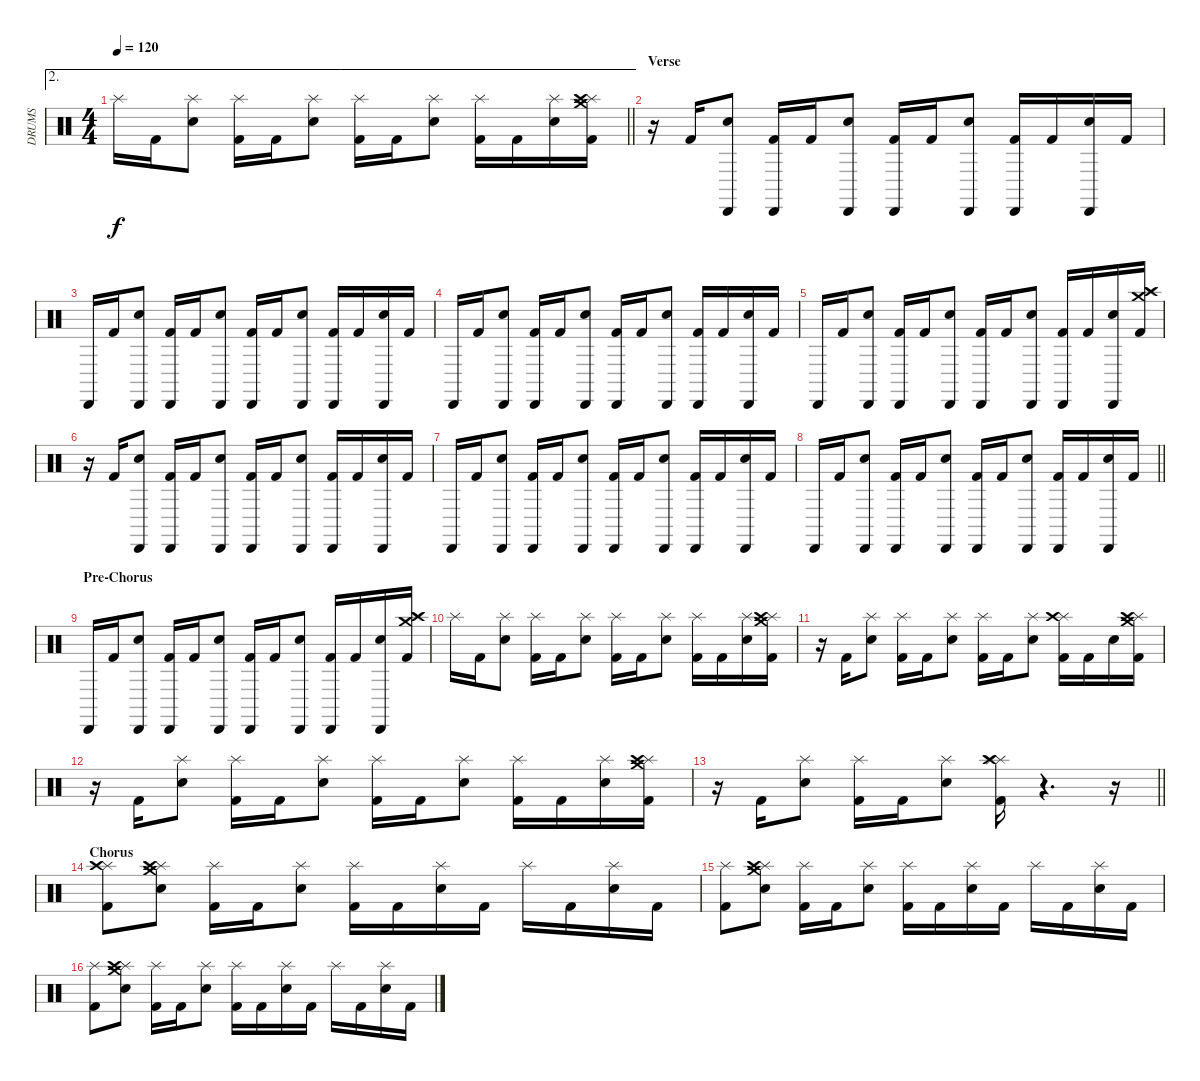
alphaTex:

\track ("DRUMS" "DRUMS") {instrument percussion}
\staff {score}
\articulation defaults
\ae 2
\ts (4 4)
\tempo 120
\clef neutral
\barLineRight lightlight
\ks c "Splash (hit)".16{dy f} "Kick (hit) 2".16
("Splash (hit)" "Electric Snare (hit)").8 ("Splash (hit)" "Kick (hit) 2").16 "Kick (hit) 2".16 ("Splash (hit)" "Electric Snare (hit)").8 ("Splash (hit)" "Kick (hit) 2").16 "Kick (hit) 2".16 ("Splash (hit)" "Electric Snare (hit)").8 ("Splash (hit)" "Kick (hit) 2").16 "Kick (hit) 2".16 ("Splash (hit)" "Electric Snare (hit)").16 ("Crash medium (hit)" "Splash (hit)" "Crash high (hit)" "Kick (hit) 2").16 |
\section ("" "Verse")
r.16 "Kick (hit) 2".16 ("Cabasa (hit)" "Electric Snare (hit)").8 ("Cabasa (hit)" "Kick (hit) 2").16 "Kick (hit) 2".16 ("Cabasa (hit)" "Electric Snare (hit)").8 ("Cabasa (hit)" "Kick (hit) 2").16 "Kick (hit) 2".16 ("Cabasa (hit)" "Electric Snare (hit)").8 ("Cabasa (hit)" "Kick (hit) 2").16 "Kick (hit) 2".16 ("Cabasa (hit)" "Electric Snare (hit)").16 "Kick (hit) 2".16 |
"Cabasa (hit)".16 "Kick (hit) 2".16 ("Cabasa (hit)" "Electric Snare (hit)").8 ("Cabasa (hit)" "Kick (hit) 2").16 "Kick (hit) 2".16 ("Cabasa (hit)" "Electric Snare (hit)").8 ("Cabasa (hit)" "Kick (hit) 2").16 "Kick (hit) 2".16 ("Cabasa (hit)" "Electric Snare (hit)").8 ("Cabasa (hit)" "Kick (hit) 2").16 "Kick (hit) 2".16 ("Cabasa (hit)" "Electric Snare (hit)").16 "Kick (hit) 2".16 |
"Cabasa (hit)".16 "Kick (hit) 2".16 ("Cabasa (hit)" "Electric Snare (hit)").8 ("Cabasa (hit)" "Kick (hit) 2").16 "Kick (hit) 2".16 ("Cabasa (hit)" "Electric Snare (hit)").8 ("Cabasa (hit)" "Kick (hit) 2").16 "Kick (hit) 2".16 ("Cabasa (hit)" "Electric Snare (hit)").8 ("Cabasa (hit)" "Kick (hit) 2").16 "Kick (hit) 2".16 ("Cabasa (hit)" "Electric Snare (hit)").16 "Kick (hit) 2".16 |
"Cabasa (hit)".16 "Kick (hit) 2".16 ("Cabasa (hit)" "Electric Snare (hit)").8 ("Cabasa (hit)" "Kick (hit) 2").16 "Kick (hit) 2".16 ("Cabasa (hit)" "Electric Snare (hit)").8 ("Cabasa (hit)" "Kick (hit) 2").16 "Kick (hit) 2".16 ("Cabasa (hit)" "Electric Snare (hit)").8 ("Cabasa (hit)" "Kick (hit) 2").16 "Kick (hit) 2".16 ("Cabasa (hit)" "Electric Snare (hit)").16 ("Crash medium (hit)" "Splash (hit)" "Crash high (hit)" "Kick (hit) 2").16 |
r.16 "Kick (hit) 2".16 ("Cabasa (hit)" "Electric Snare (hit)").8 ("Cabasa (hit)" "Kick (hit) 2").16 "Kick (hit) 2".16 ("Cabasa (hit)" "Electric Snare (hit)").8 ("Cabasa (hit)" "Kick (hit) 2").16 "Kick (hit) 2".16 ("Cabasa (hit)" "Electric Snare (hit)").8 ("Cabasa (hit)" "Kick (hit) 2").16 "Kick (hit) 2".16 ("Cabasa (hit)" "Electric Snare (hit)").16 "Kick (hit) 2".16 |
"Cabasa (hit)".16 "Kick (hit) 2".16 ("Cabasa (hit)" "Electric Snare (hit)").8 ("Cabasa (hit)" "Kick (hit) 2").16 "Kick (hit) 2".16 ("Cabasa (hit)" "Electric Snare (hit)").8 ("Cabasa (hit)" "Kick (hit) 2").16 "Kick (hit) 2".16 ("Cabasa (hit)" "Electric Snare (hit)").8 ("Cabasa (hit)" "Kick (hit) 2").16 "Kick (hit) 2".16 ("Cabasa (hit)" "Electric Snare (hit)").16 "Kick (hit) 2".16 |
\barLineRight lightlight "Cabasa (hit)".16 "Kick (hit) 2".16
("Cabasa (hit)" "Electric Snare (hit)").8 ("Cabasa (hit)" "Kick (hit) 2").16 "Kick (hit) 2".16 ("Cabasa (hit)" "Electric Snare (hit)").8 ("Cabasa (hit)" "Kick (hit) 2").16 "Kick (hit) 2".16 ("Cabasa (hit)" "Electric Snare (hit)").8 ("Cabasa (hit)" "Kick (hit) 2").16 "Kick (hit) 2".16 ("Cabasa (hit)" "Electric Snare (hit)").16 "Kick (hit) 2".16 |
\section ("" "Pre-Chorus")
"Cabasa (hit)".16 "Kick (hit) 2".16 ("Cabasa (hit)" "Electric Snare (hit)").8 ("Cabasa (hit)" "Kick (hit) 2").16 "Kick (hit) 2".16 ("Cabasa (hit)" "Electric Snare (hit)").8 ("Cabasa (hit)" "Kick (hit) 2").16 "Kick (hit) 2".16 ("Cabasa (hit)" "Electric Snare (hit)").8 ("Cabasa (hit)" "Kick (hit) 2").16 "Kick (hit) 2".16 ("Cabasa (hit)" "Electric Snare (hit)").16 ("Crash medium (hit)" "Splash (hit)" "Crash high (hit)" "Kick (hit) 2").16 |
"Splash (hit)".16 "Kick (hit) 2".16 ("Splash (hit)" "Electric Snare (hit)").8 ("Splash (hit)" "Kick (hit) 2").16 "Kick (hit) 2".16 ("Splash (hit)" "Electric Snare (hit)").8 ("Splash (hit)" "Kick (hit) 2").16 "Kick (hit) 2".16 ("Splash (hit)" "Electric Snare (hit)").8 ("Splash (hit)" "Kick (hit) 2").16 "Kick (hit) 2".16 ("Splash (hit)" "Electric Snare (hit)").16 ("Crash medium (hit)" "Splash (hit)" "Crash high (hit)" "Kick (hit) 2").16 |
r.16 "Kick (hit) 2".16 ("Splash (hit)" "Electric Snare (hit)").8 ("Splash (hit)" "Kick (hit) 2").16 "Kick (hit) 2".16 ("Splash (hit)" "Electric Snare (hit)").8 ("Splash (hit)" "Kick (hit) 2").16 "Kick (hit) 2".16 ("Splash (hit)" "Electric Snare (hit)").8 ("Splash (hit)" "Crash high (hit)" "Kick (hit) 2").16 "Kick (hit) 2".16 "Electric Snare (hit)".16 ("Crash medium (hit)" "Splash (hit)" "Crash high (hit)" "Kick (hit) 2").16 |
r.16 "Kick (hit) 2".16 ("Splash (hit)" "Electric Snare (hit)").8 ("Splash (hit)" "Kick (hit) 2").16 "Kick (hit) 2".16 ("Splash (hit)" "Electric Snare (hit)").8 ("Splash (hit)" "Kick (hit) 2").16 "Kick (hit) 2".16 ("Splash (hit)" "Electric Snare (hit)").8 ("Splash (hit)" "Kick (hit) 2").16 "Kick (hit) 2".16 ("Splash (hit)" "Electric Snare (hit)").16 ("Crash medium (hit)" "Splash (hit)" "Crash high (hit)" "Kick (hit) 2").16 |
\barLineRight lightlight
r.16 "Kick (hit) 2".16 ("Splash (hit)" "Electric Snare (hit)").8 ("Splash (hit)" "Kick (hit) 2").16 "Kick (hit) 2".16 ("Splash (hit)" "Electric Snare (hit)").8 ("Splash (hit)" "Splash (hit)" "Crash high (hit)" "Kick (hit) 2").16 r.4{d} r.16 |
\section ("" "Chorus")
("Splash (hit)" "Crash high (hit)" "Kick (hit) 2").8 ("Crash medium (hit)" "Splash (hit)" "Crash high (hit)" "Electric Snare (hit)").8 ("Splash (hit)" "Kick (hit) 2").16 "Kick (hit) 2".16 ("Splash (hit)" "Electric Snare (hit)").8 ("Splash (hit)" "Kick (hit) 2").16 "Kick (hit) 2".16 ("Splash (hit)" "Electric Snare (hit)").16 "Kick (hit) 2".16 "Splash (hit)".16 "Kick (hit) 2".16 ("Splash (hit)" "Electric Snare (hit)").16 "Kick (hit) 2".16 |
("Splash (hit)" "Kick (hit) 2").8 ("Crash medium (hit)" "Splash (hit)" "Crash high (hit)" "Electric Snare (hit)").8 ("Splash (hit)" "Kick (hit) 2").16 "Kick (hit) 2".16 ("Splash (hit)" "Electric Snare (hit)").8 ("Splash (hit)" "Kick (hit) 2").16 "Kick (hit) 2".16 ("Splash (hit)" "Electric Snare (hit)").16 "Kick (hit) 2".16 "Splash (hit)".16 "Kick (hit) 2".16 ("Splash (hit)" "Electric Snare (hit)").16 "Kick (hit) 2".16 |
("Splash (hit)" "Kick (hit) 2").8 ("Crash medium (hit)" "Splash (hit)" "Crash high (hit)" "Electric Snare (hit)").8 ("Splash (hit)" "Kick (hit) 2").16 "Kick (hit) 2".16 ("Splash (hit)" "Electric Snare (hit)").8 ("Splash (hit)" "Kick (hit) 2").16 "Kick (hit) 2".16 ("Splash (hit)" "Electric Snare (hit)").16 "Kick (hit) 2".16 "Splash (hit)".16 "Kick (hit) 2".16 ("Splash (hit)" "Electric Snare (hit)").16 "Kick (hit) 2".16
